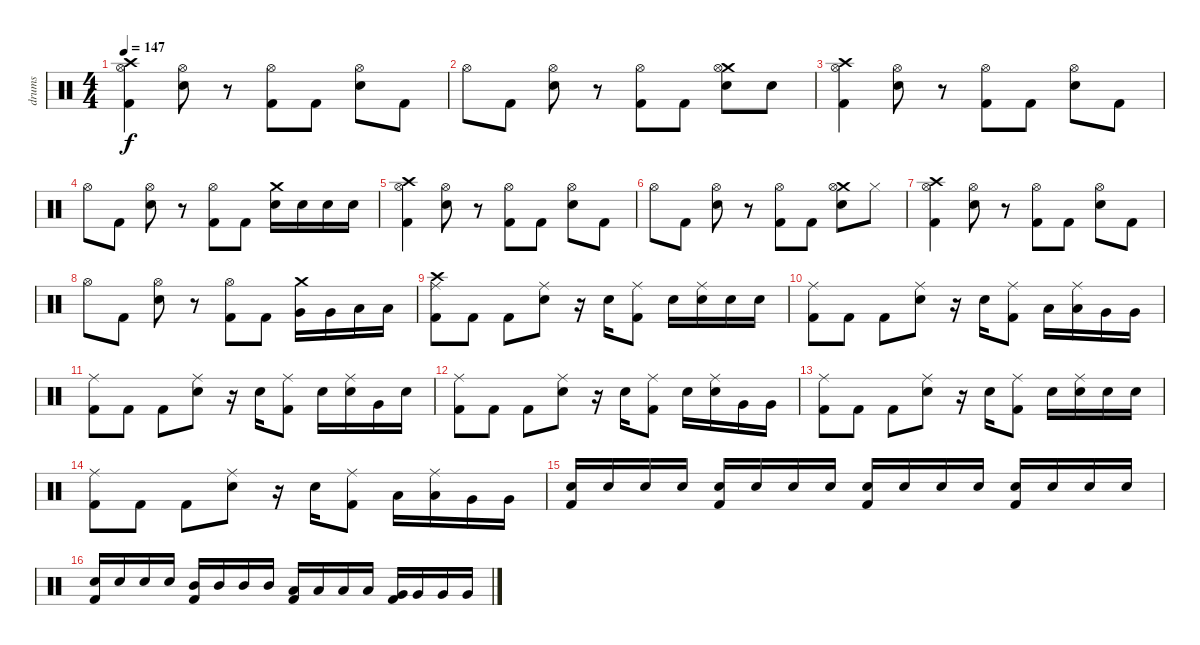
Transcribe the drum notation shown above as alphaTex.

\track ("drums" "drums") {instrument percussion}
\staff {score}
\articulation defaults
\ts (4 4)
\tempo 147
\clef neutral
\ks c
("Crash high (hit)" "Hi-Hat (open)" "Kick (hit) 2").4{dy f} ("Hi-Hat (open)" "Electric Snare (hit)").8 r.8 ("Hi-Hat (open)" "Kick (hit) 2").8 "Kick (hit) 2".8 ("Hi-Hat (open)" "Electric Snare (hit)").8 "Kick (hit) 2".8 |
"Hi-Hat (open)".8 "Kick (hit) 2".8 ("Hi-Hat (open)" "Electric Snare (hit)").8 r.8 ("Hi-Hat (open)" "Kick (hit) 2").8 "Kick (hit) 2".8 ("Crash medium (hit)" "Hi-Hat (open)" "Electric Snare (hit)").8 "Electric Snare (hit)".8 |
("Crash high (hit)" "Hi-Hat (open)" "Kick (hit) 2").4 ("Hi-Hat (open)" "Electric Snare (hit)").8 r.8 ("Hi-Hat (open)" "Kick (hit) 2").8 "Kick (hit) 2".8 ("Hi-Hat (open)" "Electric Snare (hit)").8 "Kick (hit) 2".8 |
"Hi-Hat (open)".8 "Kick (hit) 2".8 ("Hi-Hat (open)" "Electric Snare (hit)").8 r.8 ("Hi-Hat (open)" "Kick (hit) 2").8 "Kick (hit) 2".8 ("Crash medium (hit)" "Electric Snare (hit)").16 "Electric Snare (hit)".16 "Electric Snare (hit)".16 "Electric Snare (hit)".16 |
("Crash high (hit)" "Hi-Hat (open)" "Kick (hit) 2").4 ("Hi-Hat (open)" "Electric Snare (hit)").8 r.8 ("Hi-Hat (open)" "Kick (hit) 2").8 "Kick (hit) 2".8 ("Hi-Hat (open)" "Electric Snare (hit)").8 "Kick (hit) 2".8 |
"Hi-Hat (open)".8 "Kick (hit) 2".8 ("Hi-Hat (open)" "Electric Snare (hit)").8 r.8 ("Hi-Hat (open)" "Kick (hit) 2").8 "Kick (hit) 2".8 ("Crash medium (hit)" "Hi-Hat (open)" "Electric Snare (hit)").8 "Hi-Hat (closed)".8 |
("Crash high (hit)" "Hi-Hat (open)" "Kick (hit) 2").4 ("Hi-Hat (open)" "Electric Snare (hit)").8 r.8 ("Hi-Hat (open)" "Kick (hit) 2").8 "Kick (hit) 2".8 ("Hi-Hat (open)" "Electric Snare (hit)").8 "Kick (hit) 2".8 |
"Hi-Hat (open)".8 "Kick (hit) 2".8 ("Hi-Hat (open)" "Electric Snare (hit)").8 r.8 ("Hi-Hat (open)" "Kick (hit) 2").8 "Kick (hit) 2".8 ("Crash medium (hit)" "Very Low Tom (hit)").16 "Very Low Tom (hit)".16 "Low Floor Tom (hit)".16 "Low Floor Tom (hit)".16 |
("Ride (middle)" "Crash high (hit)" "Kick (hit) 2").8 "Kick (hit) 2".8 "Kick (hit) 2".8 ("Ride (middle)" "Electric Snare (hit)").8 r.16 "Electric Snare (hit)".16 ("Ride (middle)" "Kick (hit) 2").8 "Electric Snare (hit)".16 ("Ride (middle)" "Electric Snare (hit)").16 "Electric Snare (hit)".16 "Electric Snare (hit)".16 |
("Ride (middle)" "Kick (hit) 2").8 "Kick (hit) 2".8 "Kick (hit) 2".8 ("Ride (middle)" "Electric Snare (hit)").8 r.16 "Electric Snare (hit)".16 ("Ride (middle)" "Kick (hit) 2").8 "Low Tom (hit)".16 ("Ride (middle)" "Low Tom (hit)").16 "Very Low Tom (hit)".16 "Very Low Tom (hit)".16 |
("Ride (middle)" "Kick (hit) 2").8 "Kick (hit) 2".8 "Kick (hit) 2".8 ("Ride (middle)" "Electric Snare (hit)").8 r.16 "Electric Snare (hit)".16 ("Ride (middle)" "Kick (hit) 2").8 "Electric Snare (hit)".16 ("Ride (middle)" "Electric Snare (hit)").16 "Very Low Tom (hit)".16 "Electric Snare (hit)".16 |
("Ride (middle)" "Kick (hit) 2").8 "Kick (hit) 2".8 "Kick (hit) 2".8 ("Ride (middle)" "Electric Snare (hit)").8 r.16 "Electric Snare (hit)".16 ("Ride (middle)" "Kick (hit) 2").8 "Electric Snare (hit)".16 ("Ride (middle)" "Electric Snare (hit)").16 "Very Low Tom (hit)".16 "Very Low Tom (hit)".16 |
("Ride (middle)" "Kick (hit) 2").8 "Kick (hit) 2".8 "Kick (hit) 2".8 ("Ride (middle)" "Electric Snare (hit)").8 r.16 "Electric Snare (hit)".16 ("Ride (middle)" "Kick (hit) 2").8 "Electric Snare (hit)".16 ("Ride (middle)" "Electric Snare (hit)").16 "Electric Snare (hit)".16 "Electric Snare (hit)".16 |
("Ride (middle)" "Kick (hit) 2").8 "Kick (hit) 2".8 "Kick (hit) 2".8 ("Ride (middle)" "Electric Snare (hit)").8 r.16 "Electric Snare (hit)".16 ("Ride (middle)" "Kick (hit) 2").8 "Low Tom (hit)".16 ("Ride (middle)" "Low Tom (hit)").16 "Very Low Tom (hit)".16 "Very Low Tom (hit)".16 |
("Electric Snare (hit)" "Kick (hit) 2").16 "Electric Snare (hit)".16 "Electric Snare (hit)".16 "Electric Snare (hit)".16 ("Electric Snare (hit)" "Kick (hit) 2").16 "Electric Snare (hit)".16 "Electric Snare (hit)".16 "Electric Snare (hit)".16 ("Electric Snare (hit)" "Kick (hit) 2").16 "Electric Snare (hit)".16 "Electric Snare (hit)".16 "Electric Snare (hit)".16 ("Electric Snare (hit)" "Kick (hit) 2").16 "Electric Snare (hit)".16 "Electric Snare (hit)".16 "Electric Snare (hit)".16 |
("Electric Snare (hit)" "Kick (hit) 2").16 "Electric Snare (hit)".16 "Electric Snare (hit)".16 "Electric Snare (hit)".16 ("Mid Tom (hit)" "Kick (hit) 2").16 "Mid Tom (hit)".16 "Mid Tom (hit)".16 "Mid Tom (hit)".16 ("Low Tom (hit)" "Kick (hit) 2").16 "Low Tom (hit)".16 "Low Tom (hit)".16 "Low Tom (hit)".16 ("Very Low Tom (hit)" "Kick (hit) 2").16 "Very Low Tom (hit)".16 "Very Low Tom (hit)".16 "Very Low Tom (hit)".16
